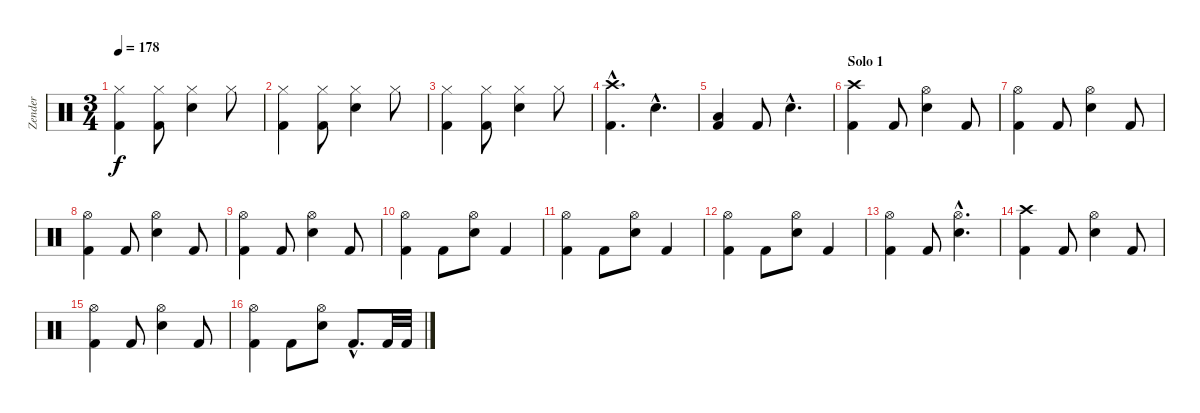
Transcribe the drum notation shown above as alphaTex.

\track ("Zender" "Zender") {instrument percussion}
\staff {score}
\articulation defaults
\ts (3 4)
\tempo 178
\clef neutral
\ks c
("Hi-Hat (closed)" "Kick (hit) 2").4{dy f} ("Hi-Hat (closed)" "Kick (hit) 2").8 ("Electric Snare (hit)" "Hi-Hat (closed)").4 "Hi-Hat (closed)".8 |
("Hi-Hat (closed)" "Kick (hit) 2").4 ("Hi-Hat (closed)" "Kick (hit) 2").8 ("Electric Snare (hit)" "Hi-Hat (closed)").4 "Hi-Hat (closed)".8 |
("Hi-Hat (closed)" "Kick (hit) 2").4 ("Hi-Hat (closed)" "Kick (hit) 2").8 ("Electric Snare (hit)" "Hi-Hat (closed)").4 "Hi-Hat (closed)".8 |
("Crash high (hit)"{hac} "Kick (hit) 2"{hac}).4{d} "Electric Snare (hit)"{hac}.4{d} |
("Low Floor Tom (hit)" "Kick (hit) 2").4 "Kick (hit) 2".8 "Electric Snare (hit)"{hac}.4{d} |
\section ("" "Solo 1")
("Crash high (hit)" "Kick (hit) 2").4 "Kick (hit) 2".8 ("Electric Snare (hit)" "Hi-Hat (open)").4 "Kick (hit) 2".8 |
("Hi-Hat (open)" "Kick (hit) 2").4 "Kick (hit) 2".8 ("Electric Snare (hit)" "Hi-Hat (open)").4 "Kick (hit) 2".8 |
("Hi-Hat (open)" "Kick (hit) 2").4 "Kick (hit) 2".8 ("Electric Snare (hit)" "Hi-Hat (open)").4 "Kick (hit) 2".8 |
("Hi-Hat (open)" "Kick (hit) 2").4 "Kick (hit) 2".8 ("Electric Snare (hit)" "Hi-Hat (open)").4 "Kick (hit) 2".8 |
("Hi-Hat (open)" "Kick (hit) 2").4 "Kick (hit) 2".8 ("Electric Snare (hit)" "Hi-Hat (open)").8 "Kick (hit) 2".4 |
("Hi-Hat (open)" "Kick (hit) 2").4 "Kick (hit) 2".8 ("Electric Snare (hit)" "Hi-Hat (open)").8 "Kick (hit) 2".4 |
("Hi-Hat (open)" "Kick (hit) 2").4 "Kick (hit) 2".8 ("Electric Snare (hit)" "Hi-Hat (open)").8 "Kick (hit) 2".4 |
("Hi-Hat (open)" "Kick (hit) 2").4 "Kick (hit) 2".8 ("Electric Snare (hit)"{hac} "Hi-Hat (open)"{hac}).4{d} |
("Crash high (hit)" "Kick (hit) 2").4 "Kick (hit) 2".8 ("Electric Snare (hit)" "Hi-Hat (open)").4 "Kick (hit) 2".8 |
("Hi-Hat (open)" "Kick (hit) 2").4 "Kick (hit) 2".8 ("Electric Snare (hit)" "Hi-Hat (open)").4 "Kick (hit) 2".8 |
("Hi-Hat (open)" "Kick (hit) 2").4 "Kick (hit) 2".8 ("Electric Snare (hit)" "Hi-Hat (open)").8 "Kick (hit) 2"{hac}.8{d} "Kick (hit) 2".32 "Kick (hit) 2".32
